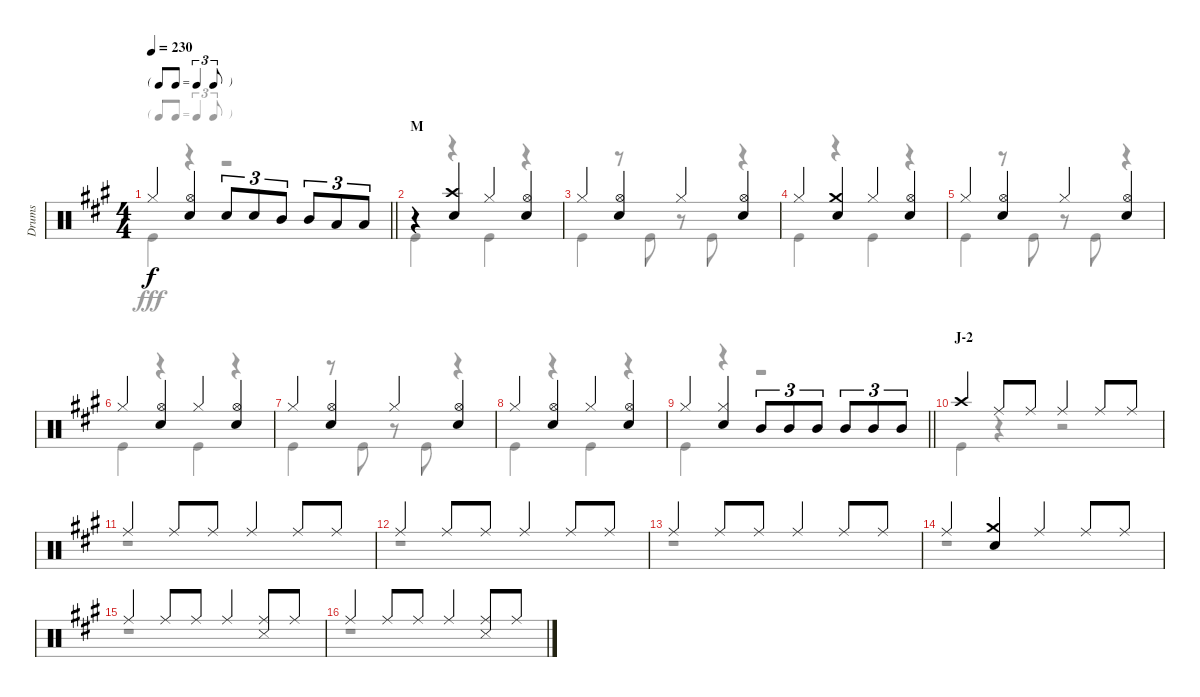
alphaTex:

\track ("Drums" "Drums") {instrument percussion}
\staff {score}
\articulation defaults
\voice
\ts (4 4)
\tf triplet8th
\tempo 230
\clef neutral
\barLineRight lightlight
\ks a "Hi-Hat (closed)".4{dy f}
("Hi-Hat (open)" "Snare (hit) 2").4 "Snare (hit) 2".8{tu (3 2)} "Snare (hit) 2".8{tu (3 2)} "Mid Tom (hit)".8{tu (3 2)} "Mid Tom (hit)".8{tu (3 2)} "Low Tom (hit)".8{tu (3 2)} "Low Tom (hit)".8{tu (3 2)} |
\section ("" "M")
r.4 ("Crash high (hit)" "Snare (hit) 2").4 "Hi-Hat (closed)".4 ("Hi-Hat (open)" "Snare (hit) 2").4 |
"Hi-Hat (closed)".4 ("Hi-Hat (open)" "Snare (hit) 2").4 "Hi-Hat (closed)".4 ("Hi-Hat (open)" "Snare (hit) 2").4 |
"Hi-Hat (closed)".4 ("Crash medium (hit)" "Snare (hit) 2").4 "Hi-Hat (closed)".4 ("Hi-Hat (open)" "Snare (hit) 2").4 |
"Hi-Hat (closed)".4 ("Hi-Hat (open)" "Snare (hit) 2").4 "Hi-Hat (closed)".4 ("Hi-Hat (open)" "Snare (hit) 2").4 |
"Hi-Hat (closed)".4 ("Hi-Hat (open)" "Snare (hit) 2").4 "Hi-Hat (closed)".4 ("Hi-Hat (open)" "Snare (hit) 2").4 |
"Hi-Hat (closed)".4 ("Hi-Hat (open)" "Snare (hit) 2").4 "Hi-Hat (closed)".4 ("Hi-Hat (open)" "Snare (hit) 2").4 |
"Hi-Hat (closed)".4 ("Hi-Hat (open)" "Snare (hit) 2").4 "Hi-Hat (closed)".4 ("Hi-Hat (open)" "Snare (hit) 2").4 |
\barLineRight lightlight "Hi-Hat (closed)".4
("Hi-Hat (closed)" "Snare (hit) 2").4 "Mid Tom (hit)".8{tu (3 2)} "Mid Tom (hit)".8{tu (3 2)} "Mid Tom (hit)".8{tu (3 2)} "Mid Tom (hit)".8{tu (3 2)} "Mid Tom (hit)".8{tu (3 2)} "Mid Tom (hit)".8{tu (3 2)} |
\section ("" "J-2")
"Crash high (hit)".4 "Ride (middle)".8 "Ride (middle)".8 "Ride (middle)".4 "Ride (middle)".8 "Ride (middle)".8 |
"Ride (middle)".4 "Ride (middle)".8 "Ride (middle)".8 "Ride (middle)".4 "Ride (middle)".8 "Ride (middle)".8 |
"Ride (middle)".4 "Ride (middle)".8 "Ride (middle)".8 "Ride (middle)".4 "Ride (middle)".8 "Ride (middle)".8 |
"Ride (middle)".4 "Ride (middle)".8 "Ride (middle)".8 "Ride (middle)".4 "Ride (middle)".8 "Ride (middle)".8 |
"Ride (middle)".4 ("Crash medium (hit)" "Snare (hit) 2").4 "Ride (middle)".4 "Ride (middle)".8 "Ride (middle)".8 |
"Ride (middle)".4 "Ride (middle)".8 "Ride (middle)".8 "Ride (middle)".4 ("Ride (middle)" "Snare (side stick) 3").8 "Ride (middle)".8 |
"Ride (middle)".4 "Ride (middle)".8 "Ride (middle)".8 "Ride (middle)".4 ("Ride (middle)" "Snare (side stick) 3").8 "Ride (middle)".8
\voice
\clef neutral
\ottava regular
\simile none
\barLineRight lightlight
\ks a "Kick (hit)".4{dy fff}
r.4 r.2 |
"Kick (hit)".4 r.4 "Kick (hit)".4 r.4 |
"Kick (hit)".4 r.8 "Kick (hit)".8 r.8 "Kick (hit)".8 r.4 |
"Kick (hit)".4 r.4 "Kick (hit)".4 r.4 |
"Kick (hit)".4 r.8 "Kick (hit)".8 r.8 "Kick (hit)".8 r.4 |
"Kick (hit)".4 r.4 "Kick (hit)".4 r.4 |
"Kick (hit)".4 r.8 "Kick (hit)".8 r.8 "Kick (hit)".8 r.4 |
"Kick (hit)".4 r.4 "Kick (hit)".4 r.4 |
\barLineRight lightlight "Kick (hit)".4
r.4 r.2 |
"Kick (hit)".4 r.4 r.2 |
r.1 |
r.1 |
r.1 |
r.1 |
r.1 |
r.1
